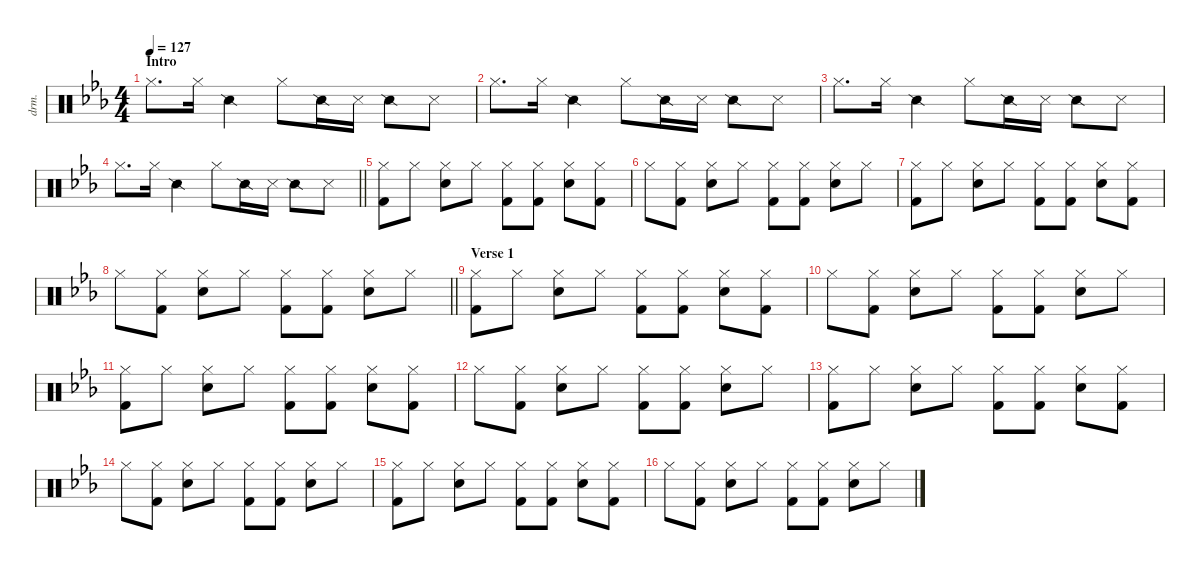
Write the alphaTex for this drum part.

\defaultSystemsLayout 4
\hideDynamics
\bracketExtendMode nobrackets
\otherSystemsTrackNameOrientation horizontal
\track ("Drums" "drm.") {defaultSystemsLayout 4 instrument percussion}
\staff {score}
\articulation defaults
\ts (4 4)
\beaming (8 2 2 2 2)
\section ("" "Intro")
\tempo 127
\clef neutral
\ks eb "Hi-Hat (closed)"{acc forcenatural}.8{d dy f beam Down} "Hi-Hat (closed)"{acc forcenatural}.16{beam Down} "Snare (side stick) 2"{acc forcenatural}.4{beam Down} "Hi-Hat (closed)"{acc forcenatural}.8{beam Down} "Snare (side stick) 2"{acc forcenatural}.16{beam Down} "Metronome (hit)"{acc forcenatural}.16{beam Down} "Snare (side stick) 2"{acc forcenatural}.8{beam Down} "Metronome (hit)"{acc forcenatural}.8{beam Down}
|
"Hi-Hat (closed)"{acc forcenatural}.8{d beam Down} "Hi-Hat (closed)"{acc forcenatural}.16{beam Down} "Snare (side stick) 2"{acc forcenatural}.4{beam Down} "Hi-Hat (closed)"{acc forcenatural}.8{beam Down} "Snare (side stick) 2"{acc forcenatural}.16{beam Down} "Metronome (hit)"{acc forcenatural}.16{beam Down} "Snare (side stick) 2"{acc forcenatural}.8{beam Down} "Metronome (hit)"{acc forcenatural}.8{beam Down} |
"Hi-Hat (closed)"{acc forcenatural}.8{d beam Down} "Hi-Hat (closed)"{acc forcenatural}.16{beam Down} "Snare (side stick) 2"{acc forcenatural}.4{beam Down} "Hi-Hat (closed)"{acc forcenatural}.8{beam Down} "Snare (side stick) 2"{acc forcenatural}.16{beam Down} "Metronome (hit)"{acc forcenatural}.16{beam Down} "Snare (side stick) 2"{acc forcenatural}.8{beam Down} "Metronome (hit)"{acc forcenatural}.8{beam Down} |
\barLineRight lightlight "Hi-Hat (closed)"{acc forcenatural}.8{d beam Down} "Hi-Hat (closed)"{acc forcenatural}.16{beam Down} "Snare (side stick) 2"{acc forcenatural}.4{beam Down} "Hi-Hat (closed)"{acc forcenatural}.8{beam Down} "Snare (side stick) 2"{acc forcenatural}.16{beam Down} "Metronome (hit)"{acc forcenatural}.16{beam Down} "Snare (side stick) 2"{acc forcenatural}.8{beam Down} "Metronome (hit)"{acc forcenatural}.8{beam Down}
|
("Hi-Hat (closed)"{acc forcenatural} "Kick (hit) 2"{acc forcenatural}).8{beam Down} "Hi-Hat (closed)"{acc forcenatural}.8{beam Down} ("Hi-Hat (closed)"{acc forcenatural} "Snare (hit) 2"{acc forcenatural}).8{beam Down} "Hi-Hat (closed)"{acc forcenatural}.8{beam Down} ("Hi-Hat (closed)"{acc forcenatural} "Kick (hit) 2"{acc forcenatural}).8{beam Down} ("Hi-Hat (closed)"{acc forcenatural} "Kick (hit) 2"{acc forcenatural}).8{beam Down} ("Hi-Hat (closed)"{acc forcenatural} "Snare (hit) 2"{acc forcenatural}).8{beam Down} ("Hi-Hat (closed)"{acc forcenatural} "Kick (hit) 2"{acc forcenatural}).8{beam Down} |
"Hi-Hat (closed)"{acc forcenatural}.8{beam Down} ("Hi-Hat (closed)"{acc forcenatural} "Kick (hit) 2"{acc forcenatural}).8{beam Down} ("Hi-Hat (closed)"{acc forcenatural} "Snare (hit) 2"{acc forcenatural}).8{beam Down} "Hi-Hat (closed)"{acc forcenatural}.8{beam Down} ("Hi-Hat (closed)"{acc forcenatural} "Kick (hit) 2"{acc forcenatural}).8{beam Down} ("Hi-Hat (closed)"{acc forcenatural} "Kick (hit) 2"{acc forcenatural}).8{beam Down} ("Hi-Hat (closed)"{acc forcenatural} "Snare (hit) 2"{acc forcenatural}).8{beam Down} "Hi-Hat (closed)"{acc forcenatural}.8{beam Down} |
("Hi-Hat (closed)"{acc forcenatural} "Kick (hit) 2"{acc forcenatural}).8{beam Down} "Hi-Hat (closed)"{acc forcenatural}.8{beam Down} ("Hi-Hat (closed)"{acc forcenatural} "Snare (hit) 2"{acc forcenatural}).8{beam Down} "Hi-Hat (closed)"{acc forcenatural}.8{beam Down} ("Hi-Hat (closed)"{acc forcenatural} "Kick (hit) 2"{acc forcenatural}).8{beam Down} ("Hi-Hat (closed)"{acc forcenatural} "Kick (hit) 2"{acc forcenatural}).8{beam Down} ("Hi-Hat (closed)"{acc forcenatural} "Snare (hit) 2"{acc forcenatural}).8{beam Down} ("Hi-Hat (closed)"{acc forcenatural} "Kick (hit) 2"{acc forcenatural}).8{beam Down} |
\barLineRight lightlight "Hi-Hat (closed)"{acc forcenatural}.8{beam Down}
("Hi-Hat (closed)"{acc forcenatural} "Kick (hit) 2"{acc forcenatural}).8{beam Down} ("Hi-Hat (closed)"{acc forcenatural} "Snare (hit) 2"{acc forcenatural}).8{beam Down} "Hi-Hat (closed)"{acc forcenatural}.8{beam Down} ("Hi-Hat (closed)"{acc forcenatural} "Kick (hit) 2"{acc forcenatural}).8{beam Down} ("Hi-Hat (closed)"{acc forcenatural} "Kick (hit) 2"{acc forcenatural}).8{beam Down} ("Hi-Hat (closed)"{acc forcenatural} "Snare (hit) 2"{acc forcenatural}).8{beam Down} "Hi-Hat (closed)"{acc forcenatural}.8{beam Down} |
\section ("" "Verse 1")
("Hi-Hat (closed)"{acc forcenatural} "Kick (hit) 2"{acc forcenatural}).8{beam Down} "Hi-Hat (closed)"{acc forcenatural}.8{beam Down} ("Hi-Hat (closed)"{acc forcenatural} "Snare (hit) 2"{acc forcenatural}).8{beam Down} "Hi-Hat (closed)"{acc forcenatural}.8{beam Down} ("Hi-Hat (closed)"{acc forcenatural} "Kick (hit) 2"{acc forcenatural}).8{beam Down} ("Hi-Hat (closed)"{acc forcenatural} "Kick (hit) 2"{acc forcenatural}).8{beam Down} ("Hi-Hat (closed)"{acc forcenatural} "Snare (hit) 2"{acc forcenatural}).8{beam Down} ("Hi-Hat (closed)"{acc forcenatural} "Kick (hit) 2"{acc forcenatural}).8{beam Down} |
"Hi-Hat (closed)"{acc forcenatural}.8{beam Down} ("Hi-Hat (closed)"{acc forcenatural} "Kick (hit) 2"{acc forcenatural}).8{beam Down} ("Hi-Hat (closed)"{acc forcenatural} "Snare (hit) 2"{acc forcenatural}).8{beam Down} "Hi-Hat (closed)"{acc forcenatural}.8{beam Down} ("Hi-Hat (closed)"{acc forcenatural} "Kick (hit) 2"{acc forcenatural}).8{beam Down} ("Hi-Hat (closed)"{acc forcenatural} "Kick (hit) 2"{acc forcenatural}).8{beam Down} ("Hi-Hat (closed)"{acc forcenatural} "Snare (hit) 2"{acc forcenatural}).8{beam Down} "Hi-Hat (closed)"{acc forcenatural}.8{beam Down} |
("Hi-Hat (closed)"{acc forcenatural} "Kick (hit) 2"{acc forcenatural}).8{beam Down} "Hi-Hat (closed)"{acc forcenatural}.8{beam Down} ("Hi-Hat (closed)"{acc forcenatural} "Snare (hit) 2"{acc forcenatural}).8{beam Down} "Hi-Hat (closed)"{acc forcenatural}.8{beam Down} ("Hi-Hat (closed)"{acc forcenatural} "Kick (hit) 2"{acc forcenatural}).8{beam Down} ("Hi-Hat (closed)"{acc forcenatural} "Kick (hit) 2"{acc forcenatural}).8{beam Down} ("Hi-Hat (closed)"{acc forcenatural} "Snare (hit) 2"{acc forcenatural}).8{beam Down} ("Hi-Hat (closed)"{acc forcenatural} "Kick (hit) 2"{acc forcenatural}).8{beam Down} |
"Hi-Hat (closed)"{acc forcenatural}.8{beam Down} ("Hi-Hat (closed)"{acc forcenatural} "Kick (hit) 2"{acc forcenatural}).8{beam Down} ("Hi-Hat (closed)"{acc forcenatural} "Snare (hit) 2"{acc forcenatural}).8{beam Down} "Hi-Hat (closed)"{acc forcenatural}.8{beam Down} ("Hi-Hat (closed)"{acc forcenatural} "Kick (hit) 2"{acc forcenatural}).8{beam Down} ("Hi-Hat (closed)"{acc forcenatural} "Kick (hit) 2"{acc forcenatural}).8{beam Down} ("Hi-Hat (closed)"{acc forcenatural} "Snare (hit) 2"{acc forcenatural}).8{beam Down} "Hi-Hat (closed)"{acc forcenatural}.8{beam Down} |
("Hi-Hat (closed)"{acc forcenatural} "Kick (hit) 2"{acc forcenatural}).8{beam Down} "Hi-Hat (closed)"{acc forcenatural}.8{beam Down} ("Hi-Hat (closed)"{acc forcenatural} "Snare (hit) 2"{acc forcenatural}).8{beam Down} "Hi-Hat (closed)"{acc forcenatural}.8{beam Down} ("Hi-Hat (closed)"{acc forcenatural} "Kick (hit) 2"{acc forcenatural}).8{beam Down} ("Hi-Hat (closed)"{acc forcenatural} "Kick (hit) 2"{acc forcenatural}).8{beam Down} ("Hi-Hat (closed)"{acc forcenatural} "Snare (hit) 2"{acc forcenatural}).8{beam Down} ("Hi-Hat (closed)"{acc forcenatural} "Kick (hit) 2"{acc forcenatural}).8{beam Down} |
"Hi-Hat (closed)"{acc forcenatural}.8{beam Down} ("Hi-Hat (closed)"{acc forcenatural} "Kick (hit) 2"{acc forcenatural}).8{beam Down} ("Hi-Hat (closed)"{acc forcenatural} "Snare (hit) 2"{acc forcenatural}).8{beam Down} "Hi-Hat (closed)"{acc forcenatural}.8{beam Down} ("Hi-Hat (closed)"{acc forcenatural} "Kick (hit) 2"{acc forcenatural}).8{beam Down} ("Hi-Hat (closed)"{acc forcenatural} "Kick (hit) 2"{acc forcenatural}).8{beam Down} ("Hi-Hat (closed)"{acc forcenatural} "Snare (hit) 2"{acc forcenatural}).8{beam Down} "Hi-Hat (closed)"{acc forcenatural}.8{beam Down} |
("Hi-Hat (closed)"{acc forcenatural} "Kick (hit) 2"{acc forcenatural}).8{beam Down} "Hi-Hat (closed)"{acc forcenatural}.8{beam Down} ("Hi-Hat (closed)"{acc forcenatural} "Snare (hit) 2"{acc forcenatural}).8{beam Down} "Hi-Hat (closed)"{acc forcenatural}.8{beam Down} ("Hi-Hat (closed)"{acc forcenatural} "Kick (hit) 2"{acc forcenatural}).8{beam Down} ("Hi-Hat (closed)"{acc forcenatural} "Kick (hit) 2"{acc forcenatural}).8{beam Down} ("Hi-Hat (closed)"{acc forcenatural} "Snare (hit) 2"{acc forcenatural}).8{beam Down} ("Hi-Hat (closed)"{acc forcenatural} "Kick (hit) 2"{acc forcenatural}).8{beam Down} |
"Hi-Hat (closed)"{acc forcenatural}.8{beam Down} ("Hi-Hat (closed)"{acc forcenatural} "Kick (hit) 2"{acc forcenatural}).8{beam Down} ("Hi-Hat (closed)"{acc forcenatural} "Snare (hit) 2"{acc forcenatural}).8{beam Down} "Hi-Hat (closed)"{acc forcenatural}.8{beam Down} ("Hi-Hat (closed)"{acc forcenatural} "Kick (hit) 2"{acc forcenatural}).8{beam Down} ("Hi-Hat (closed)"{acc forcenatural} "Kick (hit) 2"{acc forcenatural}).8{beam Down} ("Hi-Hat (closed)"{acc forcenatural} "Snare (hit) 2"{acc forcenatural}).8{beam Down} "Hi-Hat (closed)"{acc forcenatural}.8{beam Down}
